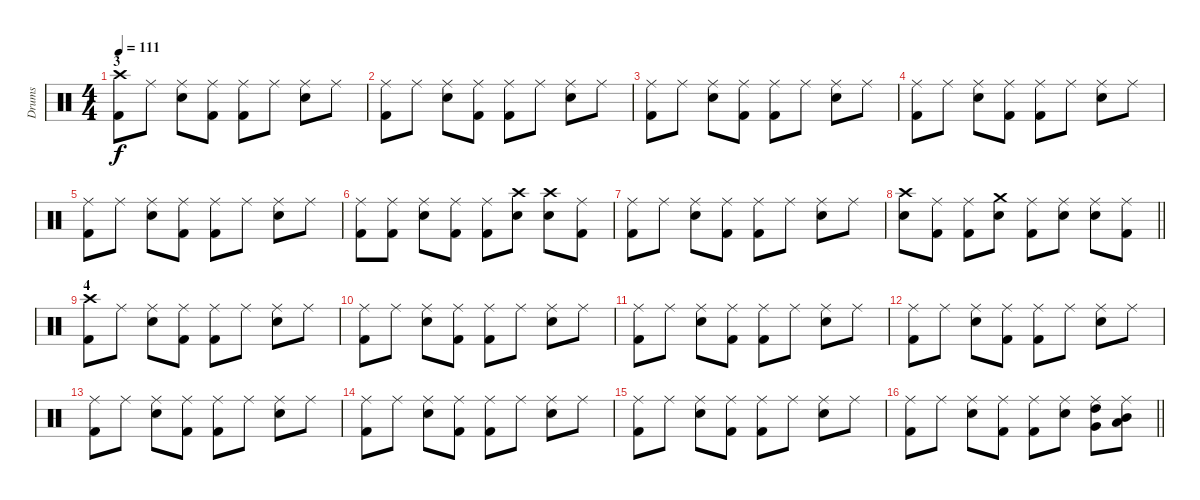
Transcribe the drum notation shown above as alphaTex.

\track ("Drums" "Drums") {instrument percussion}
\staff {score}
\articulation defaults
\ts (4 4)
\section ("" "3")
\tempo 111
\clef neutral
\ks c
("Crash high (hit)" "Kick (hit) 2").8{dy f} "Ride (middle)".8 ("Ride (middle)" "Snare (hit) 2").8 ("Ride (middle)" "Kick (hit) 2").8 ("Ride (middle)" "Kick (hit) 2").8 "Ride (middle)".8 ("Ride (middle)" "Snare (hit) 2").8 "Ride (middle)".8 |
("Ride (middle)" "Kick (hit) 2").8 "Ride (middle)".8 ("Ride (middle)" "Snare (hit) 2").8 ("Ride (middle)" "Kick (hit) 2").8 ("Ride (middle)" "Kick (hit) 2").8 "Ride (middle)".8 ("Ride (middle)" "Snare (hit) 2").8 "Ride (middle)".8 |
("Ride (middle)" "Kick (hit) 2").8 "Ride (middle)".8 ("Ride (middle)" "Snare (hit) 2").8 ("Ride (middle)" "Kick (hit) 2").8 ("Ride (middle)" "Kick (hit) 2").8 "Ride (middle)".8 ("Ride (middle)" "Snare (hit) 2").8 "Ride (middle)".8 |
("Ride (middle)" "Kick (hit) 2").8 "Ride (middle)".8 ("Ride (middle)" "Snare (hit) 2").8 ("Ride (middle)" "Kick (hit) 2").8 ("Ride (middle)" "Kick (hit) 2").8 "Ride (middle)".8 ("Ride (middle)" "Snare (hit) 2").8 "Ride (middle)".8 |
("Ride (middle)" "Kick (hit) 2").8 "Ride (middle)".8 ("Ride (middle)" "Snare (hit) 2").8 ("Ride (middle)" "Kick (hit) 2").8 ("Ride (middle)" "Kick (hit) 2").8 "Ride (middle)".8 ("Ride (middle)" "Snare (hit) 2").8 "Ride (middle)".8 |
("Ride (middle)" "Kick (hit) 2").8 ("Ride (middle)" "Kick (hit) 2").8 ("Ride (middle)" "Snare (hit) 2").8 ("Ride (middle)" "Kick (hit) 2").8 ("Ride (middle)" "Kick (hit) 2").8 ("Crash high (hit)" "Snare (hit) 2").8 ("Crash high (hit)" "Snare (hit) 2").8 ("Ride (middle)" "Kick (hit) 2").8 |
("Ride (middle)" "Kick (hit) 2").8 "Ride (middle)".8 ("Ride (middle)" "Snare (hit) 2").8 ("Ride (middle)" "Kick (hit) 2").8 ("Ride (middle)" "Kick (hit) 2").8 "Ride (middle)".8 ("Ride (middle)" "Snare (hit) 2").8 "Ride (middle)".8 |
\barLineRight lightlight
("Crash high (hit)" "Snare (hit) 2").8 ("Ride (middle)" "Kick (hit) 2").8 ("Ride (middle)" "Kick (hit) 2").8 ("Crash medium (hit)" "Snare (hit) 2").8 ("Ride (middle)" "Kick (hit) 2").8 ("Ride (middle)" "Snare (hit) 2").8 ("Ride (middle)" "Snare (hit) 2").8 ("Ride (middle)" "Kick (hit) 2").8 |
\section ("" "4")
("Crash high (hit)" "Kick (hit) 2").8 "Ride (middle)".8 ("Ride (middle)" "Snare (hit) 2").8 ("Ride (middle)" "Kick (hit) 2").8 ("Ride (middle)" "Kick (hit) 2").8 "Ride (middle)".8 ("Ride (middle)" "Snare (hit) 2").8 "Ride (middle)".8 |
("Ride (middle)" "Kick (hit) 2").8 "Ride (middle)".8 ("Ride (middle)" "Snare (hit) 2").8 ("Ride (middle)" "Kick (hit) 2").8 ("Ride (middle)" "Kick (hit) 2").8 "Ride (middle)".8 ("Ride (middle)" "Snare (hit) 2").8 "Ride (middle)".8 |
("Ride (middle)" "Kick (hit) 2").8 "Ride (middle)".8 ("Ride (middle)" "Snare (hit) 2").8 ("Ride (middle)" "Kick (hit) 2").8 ("Ride (middle)" "Kick (hit) 2").8 "Ride (middle)".8 ("Ride (middle)" "Snare (hit) 2").8 "Ride (middle)".8 |
("Ride (middle)" "Kick (hit) 2").8 "Ride (middle)".8 ("Ride (middle)" "Snare (hit) 2").8 ("Ride (middle)" "Kick (hit) 2").8 ("Ride (middle)" "Kick (hit) 2").8 "Ride (middle)".8 ("Ride (middle)" "Snare (hit) 2").8 "Ride (middle)".8 |
("Ride (middle)" "Kick (hit) 2").8 "Ride (middle)".8 ("Ride (middle)" "Snare (hit) 2").8 ("Ride (middle)" "Kick (hit) 2").8 ("Ride (middle)" "Kick (hit) 2").8 "Ride (middle)".8 ("Ride (middle)" "Snare (hit) 2").8 "Ride (middle)".8 |
("Ride (middle)" "Kick (hit) 2").8 "Ride (middle)".8 ("Ride (middle)" "Snare (hit) 2").8 ("Ride (middle)" "Kick (hit) 2").8 ("Ride (middle)" "Kick (hit) 2").8 "Ride (middle)".8 ("Ride (middle)" "Snare (hit) 2").8 "Ride (middle)".8 |
("Ride (middle)" "Kick (hit) 2").8 "Ride (middle)".8 ("Ride (middle)" "Snare (hit) 2").8 ("Ride (middle)" "Kick (hit) 2").8 ("Ride (middle)" "Kick (hit) 2").8 "Ride (middle)".8 ("Ride (middle)" "Snare (hit) 2").8 "Ride (middle)".8 |
\barLineRight lightlight
("Ride (middle)" "Kick (hit) 2").8 "Ride (middle)".8 ("Ride (middle)" "Snare (hit) 2").8 ("Ride (middle)" "Kick (hit) 2").8 ("Ride (middle)" "Kick (hit) 2").8 ("Ride (middle)" "Snare (hit) 2").8 ("Ride (middle)" "High Tom (hit)" "Very Low Tom (hit)").8 ("Ride (middle)" "Mid Tom (hit)" "Low Floor Tom (hit)").8
